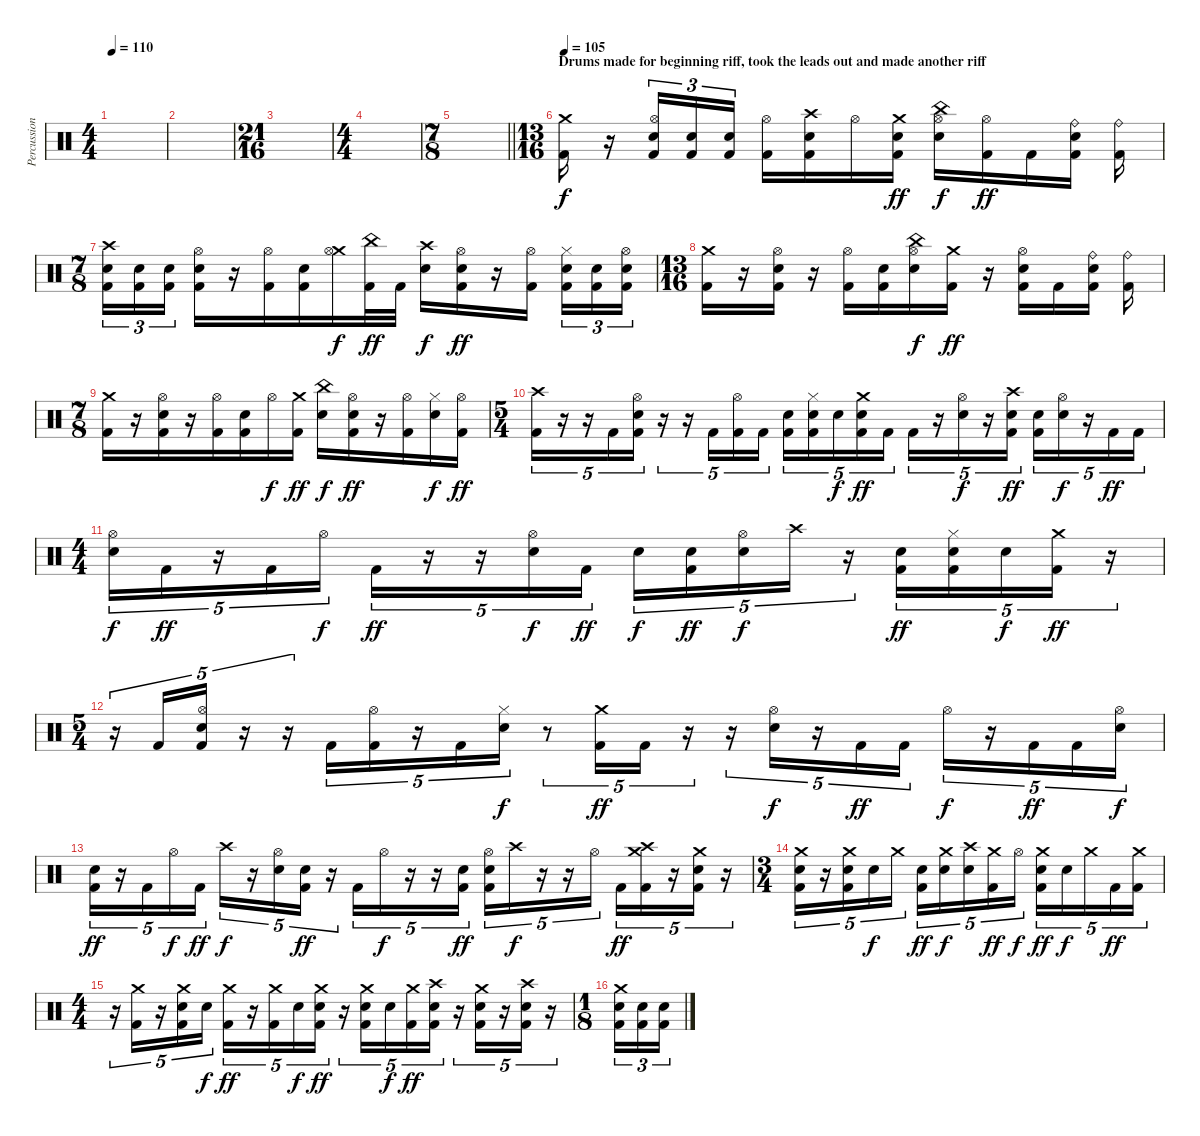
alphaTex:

\track ("Percussion" "Percussion") {instrument percussion}
\staff {score}
\articulation defaults
\ts (4 4)
\tempo 110
\clef neutral
\ks c
|
|
\ts (21 16)
|
\ts (4 4)
|
\ts (7 8)
\barLineRight lightlight
|
\ts (13 16)
\section ("" "Drums made for beginning riff, took the leads out and made another riff")
\tempo 105
("Crash medium (hit)" "Kick (hit) 2").16 r.16 ("Hi-Hat (open)" "Electric Snare (hit)" "Kick (hit) 2").16{tu (3 2)} ("Electric Snare (hit)" "Kick (hit) 2").16{tu (3 2)} ("Electric Snare (hit)" "Kick (hit) 2").16{tu (3 2)} ("Hi-Hat (open)" "Kick (hit) 2").16 ("Crash high (hit)" "Electric Snare (hit)" "Kick (hit) 2").16 "Hi-Hat (open)".16{dy f} ("Crash medium (hit)" "Electric Snare (hit)" "Kick (hit) 2").16{dy ff} ("China (hit)" "Hi-Hat (open)" "Electric Snare (hit)").16{dy f} ("Hi-Hat (open)" "Kick (hit) 2").16{dy ff} "Kick (hit) 2".16 ("Ride (bell)" "Electric Snare (hit)" "Kick (hit) 2").16 ("Ride (bell)" "Kick (hit) 2").16 |
\ts (7 8)
("Crash high (hit)" "Electric Snare (hit)" "Kick (hit) 2").16{tu (3 2)} ("Electric Snare (hit)" "Kick (hit) 2").16{tu (3 2)} ("Electric Snare (hit)" "Kick (hit) 2").16{tu (3 2)} ("Hi-Hat (open)" "Electric Snare (hit)" "Kick (hit) 2").16 r.16 ("Hi-Hat (open)" "Kick (hit) 2").16 ("Electric Snare (hit)" "Kick (hit) 2").16 ("Crash medium (hit)" "Hi-Hat (open)").16{dy f} ("China (hit)" "Kick (hit) 2").32{dy ff} "Kick (hit) 2".32 ("Crash high (hit)" "Electric Snare (hit)").16{dy f} ("Hi-Hat (open)" "Electric Snare (hit)" "Kick (hit) 2").16{dy ff} r.16 ("Hi-Hat (open)" "Kick (hit) 2").16 ("Hi-Hat (closed)" "Electric Snare (hit)" "Kick (hit) 2").16{tu (3 2)} ("Electric Snare (hit)" "Kick (hit) 2").16{tu (3 2)} ("Hi-Hat (open)" "Electric Snare (hit)" "Kick (hit) 2").16{tu (3 2)} |
\ts (13 16)
("Crash medium (hit)" "Kick (hit) 2").16 r.16 ("Hi-Hat (open)" "Electric Snare (hit)" "Kick (hit) 2").16 r.16 ("Hi-Hat (open)" "Kick (hit) 2").16 ("Electric Snare (hit)" "Kick (hit) 2").16 ("China (hit)" "Hi-Hat (open)" "Electric Snare (hit)").16{dy f} ("Crash medium (hit)" "Kick (hit) 2").16{dy ff} r.16 ("Hi-Hat (open)" "Electric Snare (hit)" "Kick (hit) 2").16 "Kick (hit) 2".16 ("Ride (bell)" "Electric Snare (hit)" "Kick (hit) 2").16 ("Ride (bell)" "Kick (hit) 2").16 |
\ts (7 8)
("Crash medium (hit)" "Kick (hit) 2").16 r.16 ("Hi-Hat (open)" "Electric Snare (hit)" "Kick (hit) 2").16 r.16 ("Hi-Hat (open)" "Kick (hit) 2").16 ("Electric Snare (hit)" "Kick (hit) 2").16 "Hi-Hat (open)".16{dy f} ("Crash medium (hit)" "Kick (hit) 2").16{dy ff} ("China (hit)" "Electric Snare (hit)").16{dy f} ("Hi-Hat (open)" "Electric Snare (hit)" "Kick (hit) 2").16{dy ff} r.16 ("Hi-Hat (open)" "Kick (hit) 2").16 ("Hi-Hat (closed)" "Electric Snare (hit)").16{dy f} ("Hi-Hat (open)" "Kick (hit) 2").16{dy ff} |
\ts (5 4)
("Crash high (hit)" "Kick (hit) 2").16{tu (5 4)} r.16{tu (5 4)} r.16{tu (5 4)} "Kick (hit) 2".16{tu (5 4)} ("Hi-Hat (open)" "Electric Snare (hit)" "Kick (hit) 2").16{tu (5 4)} r.16{tu (5 4)} r.16{tu (5 4)} "Kick (hit) 2".16{tu (5 4)} ("Hi-Hat (open)" "Kick (hit) 2").16{tu (5 4)} "Kick (hit) 2".16{tu (5 4)} ("Electric Snare (hit)" "Kick (hit) 2").16{tu (5 4)} ("Hi-Hat (closed)" "Electric Snare (hit)" "Kick (hit) 2").16{tu (5 4)} "Electric Snare (hit)".16{tu (5 4) dy f} ("Crash medium (hit)" "Electric Snare (hit)" "Kick (hit) 2").16{tu (5 4) dy ff} "Kick (hit) 2".16{tu (5 4)} "Kick (hit) 2".16{tu (5 4)} r.16{tu (5 4)} ("Hi-Hat (open)" "Electric Snare (hit)").16{tu (5 4) dy f} r.16{tu (5 4)} ("Crash high (hit)" "Electric Snare (hit)" "Kick (hit) 2").16{tu (5 4) dy ff} ("Electric Snare (hit)" "Kick (hit) 2").16{tu (5 4)} ("Hi-Hat (open)" "Electric Snare (hit)").16{tu (5 4) dy f} r.16{tu (5 4)} "Kick (hit) 2".16{tu (5 4) dy ff} "Kick (hit) 2".16{tu (5 4)} |
\ts (4 4)
("Hi-Hat (open)" "Electric Snare (hit)").16{tu (5 4) dy f} "Kick (hit) 2".16{tu (5 4) dy ff} r.16{tu (5 4)} "Kick (hit) 2".16{tu (5 4)} "Hi-Hat (open)".16{tu (5 4) dy f} "Kick (hit) 2".16{tu (5 4) dy ff} r.16{tu (5 4)} r.16{tu (5 4)} ("Hi-Hat (open)" "Electric Snare (hit)").16{tu (5 4) dy f} "Kick (hit) 2".16{tu (5 4) dy ff} "Electric Snare (hit)".16{tu (5 4) dy f} ("Electric Snare (hit)" "Kick (hit) 2").16{tu (5 4) dy ff} ("Hi-Hat (open)" "Electric Snare (hit)").16{tu (5 4) dy f} "Crash high (hit)".16{tu (5 4)} r.16{tu (5 4)} ("Electric Snare (hit)" "Kick (hit) 2").16{tu (5 4) dy ff} ("Hi-Hat (closed)" "Electric Snare (hit)" "Kick (hit) 2").16{tu (5 4)} "Electric Snare (hit)".16{tu (5 4) dy f} ("Crash medium (hit)" "Kick (hit) 2").16{tu (5 4) dy ff} r.16{tu (5 4)} |
\ts (5 4)
r.16{tu (5 4)} "Kick (hit) 2".16{tu (5 4)} ("Hi-Hat (open)" "Electric Snare (hit)" "Kick (hit) 2").16{tu (5 4)} r.16{tu (5 4)} r.16{tu (5 4)} "Kick (hit) 2".16{tu (5 4)} ("Hi-Hat (open)" "Kick (hit) 2").16{tu (5 4)} r.16{tu (5 4)} "Kick (hit) 2".16{tu (5 4)} ("Hi-Hat (closed)" "Electric Snare (hit)").16{tu (5 4) dy f} r.8{tu (5 4)} ("Crash medium (hit)" "Kick (hit) 2").16{tu (5 4) dy ff} "Kick (hit) 2".16{tu (5 4)} r.16{tu (5 4)} r.16{tu (5 4)} ("Hi-Hat (open)" "Electric Snare (hit)").16{tu (5 4) dy f} r.16{tu (5 4)} "Kick (hit) 2".16{tu (5 4) dy ff} "Kick (hit) 2".16{tu (5 4)} "Hi-Hat (open)".16{tu (5 4) dy f} r.16{tu (5 4)} "Kick (hit) 2".16{tu (5 4) dy ff} "Kick (hit) 2".16{tu (5 4)} ("Hi-Hat (open)" "Electric Snare (hit)").16{tu (5 4) dy f} |
("Electric Snare (hit)" "Kick (hit) 2").16{tu (5 4) dy ff} r.16{tu (5 4)} "Kick (hit) 2".16{tu (5 4)} "Hi-Hat (open)".16{tu (5 4) dy f} "Kick (hit) 2".16{tu (5 4) dy ff} "Crash high (hit)".16{tu (5 4) dy f} r.16{tu (5 4)} ("Hi-Hat (open)" "Electric Snare (hit)").16{tu (5 4)} ("Electric Snare (hit)" "Kick (hit) 2").16{tu (5 4) dy ff} r.16{tu (5 4)} "Kick (hit) 2".16{tu (5 4)} "Hi-Hat (open)".16{tu (5 4) dy f} r.16{tu (5 4)} r.16{tu (5 4)} ("Electric Snare (hit)" "Kick (hit) 2").16{tu (5 4) dy ff} ("Hi-Hat (open)" "Electric Snare (hit)" "Kick (hit) 2").16{tu (5 4)} "Crash high (hit)".16{tu (5 4) dy f} r.16{tu (5 4)} r.16{tu (5 4)} "Hi-Hat (open)".16{tu (5 4)} "Kick (hit) 2".16{tu (5 4) dy ff} ("Crash medium (hit)" "Crash high (hit)" "Kick (hit) 2").16{tu (5 4)} r.16{tu (5 4)} ("Crash medium (hit)" "Electric Snare (hit)" "Kick (hit) 2").16{tu (5 4)} r.16{tu (5 4)} |
\ts (3 4)
("Crash medium (hit)" "Electric Snare (hit)" "Kick (hit) 2").16{tu (5 4)} r.16{tu (5 4)} ("Crash medium (hit)" "Electric Snare (hit)" "Kick (hit) 2").16{tu (5 4)} "Electric Snare (hit)".16{tu (5 4) dy f} "Crash medium (hit)".16{tu (5 4)} ("Electric Snare (hit)" "Kick (hit) 2").16{tu (5 4) dy ff} ("Crash medium (hit)" "Electric Snare (hit)").16{tu (5 4) dy f} ("Crash high (hit)" "Electric Snare (hit)").16{tu (5 4)} ("Crash medium (hit)" "Kick (hit) 2").16{tu (5 4) dy ff} "Hi-Hat (open)".16{tu (5 4) dy f} ("Crash medium (hit)" "Electric Snare (hit)" "Kick (hit) 2").16{tu (5 4) dy ff} "Electric Snare (hit)".16{tu (5 4) dy f} "Crash medium (hit)".16{tu (5 4)} "Kick (hit) 2".16{tu (5 4) dy ff} ("Crash medium (hit)" "Kick (hit) 2").16{tu (5 4)} |
\ts (4 4)
r.16{tu (5 4)} ("Crash medium (hit)" "Kick (hit) 2").16{tu (5 4)} r.16{tu (5 4)} ("Crash medium (hit)" "Electric Snare (hit)" "Kick (hit) 2").16{tu (5 4)} "Electric Snare (hit)".16{tu (5 4) dy f} ("Crash medium (hit)" "Kick (hit) 2").16{tu (5 4) dy ff} r.16{tu (5 4)} ("Crash medium (hit)" "Kick (hit) 2").16{tu (5 4)} "Electric Snare (hit)".16{tu (5 4) dy f} ("Crash medium (hit)" "Electric Snare (hit)" "Kick (hit) 2").16{tu (5 4) dy ff} r.16{tu (5 4)} ("Crash medium (hit)" "Electric Snare (hit)" "Kick (hit) 2").16{tu (5 4)} "Electric Snare (hit)".16{tu (5 4) dy f} ("Crash medium (hit)" "Kick (hit) 2").16{tu (5 4) dy ff} ("Crash high (hit)" "Electric Snare (hit)" "Kick (hit) 2").16{tu (5 4)} r.16{tu (5 4)} ("Crash medium (hit)" "Electric Snare (hit)" "Kick (hit) 2").16{tu (5 4)} r.16{tu (5 4)} ("Crash high (hit)" "Electric Snare (hit)" "Kick (hit) 2").16{tu (5 4)} r.16{tu (5 4)} |
\ts (1 8)
("Crash medium (hit)" "Electric Snare (hit)" "Kick (hit) 2").16{tu (3 2)} ("Electric Snare (hit)" "Kick (hit) 2").16{tu (3 2)} ("Electric Snare (hit)" "Kick (hit) 2").16{tu (3 2)}
